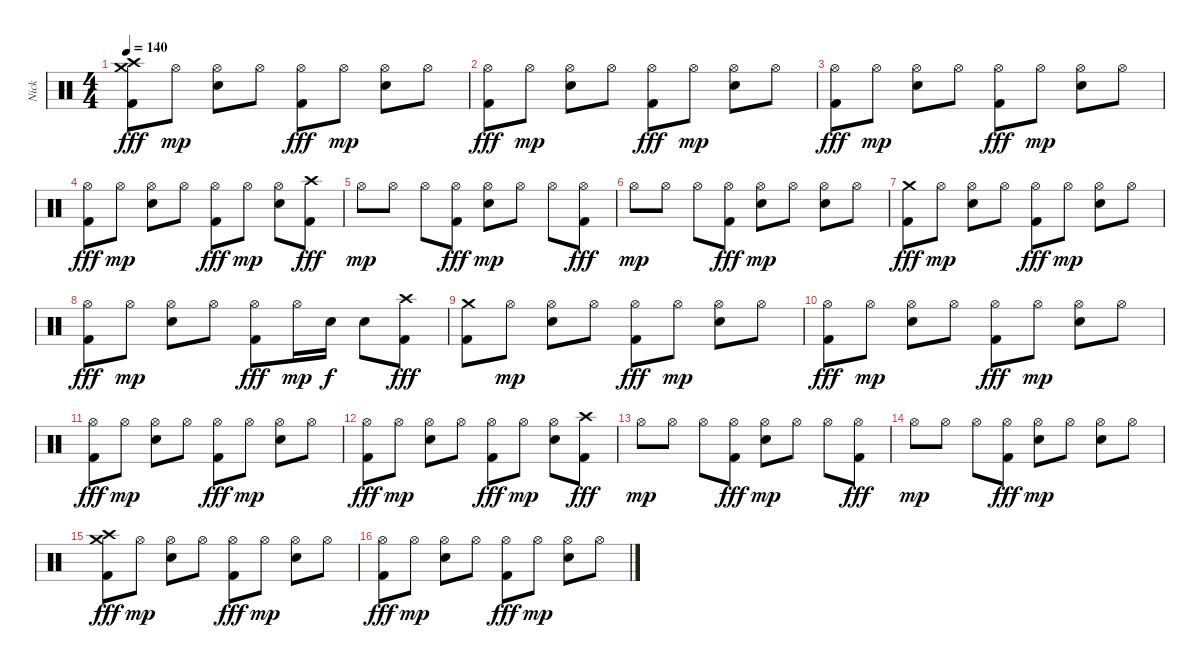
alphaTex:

\track ("Nick" "Nick") {instrument percussion}
\staff {score}
\articulation defaults
\ts (4 4)
\tempo 140
\clef neutral
\ks c
("Crash high (hit)" "Crash medium (hit)" "Kick (hit) 2").8{dy fff} "Hi-Hat (open)".8{dy mp} ("Hi-Hat (open)" "Electric Snare (hit)").8 "Hi-Hat (open)".8 ("Hi-Hat (open)" "Kick (hit) 2").8{dy fff} "Hi-Hat (open)".8{dy mp} ("Hi-Hat (open)" "Electric Snare (hit)").8 "Hi-Hat (open)".8 |
("Hi-Hat (open)" "Kick (hit) 2").8{dy fff} "Hi-Hat (open)".8{dy mp} ("Hi-Hat (open)" "Electric Snare (hit)").8 "Hi-Hat (open)".8 ("Hi-Hat (open)" "Kick (hit) 2").8{dy fff} "Hi-Hat (open)".8{dy mp} ("Hi-Hat (open)" "Electric Snare (hit)").8 "Hi-Hat (open)".8 |
("Hi-Hat (open)" "Kick (hit) 2").8{dy fff} "Hi-Hat (open)".8{dy mp} ("Hi-Hat (open)" "Electric Snare (hit)").8 "Hi-Hat (open)".8 ("Hi-Hat (open)" "Kick (hit) 2").8{dy fff} "Hi-Hat (open)".8{dy mp} ("Hi-Hat (open)" "Electric Snare (hit)").8 "Hi-Hat (open)".8 |
("Hi-Hat (open)" "Kick (hit) 2").8{dy fff} "Hi-Hat (open)".8{dy mp} ("Hi-Hat (open)" "Electric Snare (hit)").8 "Hi-Hat (open)".8 ("Hi-Hat (open)" "Kick (hit) 2").8{dy fff} "Hi-Hat (open)".8{dy mp} ("Hi-Hat (open)" "Electric Snare (hit)").8 ("Crash high (hit)" "Kick (hit) 2").8{dy fff} |
"Hi-Hat (open)".8{dy mp} "Hi-Hat (open)".8 "Hi-Hat (open)".8 ("Hi-Hat (open)" "Kick (hit) 2").8{dy fff} ("Hi-Hat (open)" "Electric Snare (hit)").8{dy mp} "Hi-Hat (open)".8 "Hi-Hat (open)".8 ("Hi-Hat (open)" "Kick (hit) 2").8{dy fff} |
"Hi-Hat (open)".8{dy mp} "Hi-Hat (open)".8 "Hi-Hat (open)".8 ("Hi-Hat (open)" "Kick (hit) 2").8{dy fff} ("Hi-Hat (open)" "Electric Snare (hit)").8{dy mp} "Hi-Hat (open)".8 ("Hi-Hat (open)" "Electric Snare (hit)").8 "Hi-Hat (open)".8 |
("Crash medium (hit)" "Kick (hit) 2").8{dy fff} "Hi-Hat (open)".8{dy mp} ("Hi-Hat (open)" "Electric Snare (hit)").8 "Hi-Hat (open)".8 ("Hi-Hat (open)" "Kick (hit) 2").8{dy fff} "Hi-Hat (open)".8{dy mp} ("Hi-Hat (open)" "Electric Snare (hit)").8 "Hi-Hat (open)".8 |
("Hi-Hat (open)" "Kick (hit) 2").8{dy fff} "Hi-Hat (open)".8{dy mp} ("Hi-Hat (open)" "Electric Snare (hit)").8 "Hi-Hat (open)".8 ("Hi-Hat (open)" "Kick (hit) 2").8{dy fff} "Hi-Hat (open)".16{dy mp} "Electric Snare (hit)".16{dy f} "Electric Snare (hit)".8 ("Crash high (hit)" "Kick (hit) 2").8{dy fff} |
("Crash medium (hit)" "Kick (hit) 2").8 "Hi-Hat (open)".8{dy mp} ("Hi-Hat (open)" "Electric Snare (hit)").8 "Hi-Hat (open)".8 ("Hi-Hat (open)" "Kick (hit) 2").8{dy fff} "Hi-Hat (open)".8{dy mp} ("Hi-Hat (open)" "Electric Snare (hit)").8 "Hi-Hat (open)".8 |
("Hi-Hat (open)" "Kick (hit) 2").8{dy fff} "Hi-Hat (open)".8{dy mp} ("Hi-Hat (open)" "Electric Snare (hit)").8 "Hi-Hat (open)".8 ("Hi-Hat (open)" "Kick (hit) 2").8{dy fff} "Hi-Hat (open)".8{dy mp} ("Hi-Hat (open)" "Electric Snare (hit)").8 "Hi-Hat (open)".8 |
("Hi-Hat (open)" "Kick (hit) 2").8{dy fff} "Hi-Hat (open)".8{dy mp} ("Hi-Hat (open)" "Electric Snare (hit)").8 "Hi-Hat (open)".8 ("Hi-Hat (open)" "Kick (hit) 2").8{dy fff} "Hi-Hat (open)".8{dy mp} ("Hi-Hat (open)" "Electric Snare (hit)").8 "Hi-Hat (open)".8 |
("Hi-Hat (open)" "Kick (hit) 2").8{dy fff} "Hi-Hat (open)".8{dy mp} ("Hi-Hat (open)" "Electric Snare (hit)").8 "Hi-Hat (open)".8 ("Hi-Hat (open)" "Kick (hit) 2").8{dy fff} "Hi-Hat (open)".8{dy mp} ("Hi-Hat (open)" "Electric Snare (hit)").8 ("Crash high (hit)" "Kick (hit) 2").8{dy fff} |
"Hi-Hat (open)".8{dy mp} "Hi-Hat (open)".8 "Hi-Hat (open)".8 ("Hi-Hat (open)" "Kick (hit) 2").8{dy fff} ("Hi-Hat (open)" "Electric Snare (hit)").8{dy mp} "Hi-Hat (open)".8 "Hi-Hat (open)".8 ("Hi-Hat (open)" "Kick (hit) 2").8{dy fff} |
"Hi-Hat (open)".8{dy mp} "Hi-Hat (open)".8 "Hi-Hat (open)".8 ("Hi-Hat (open)" "Kick (hit) 2").8{dy fff} ("Hi-Hat (open)" "Electric Snare (hit)").8{dy mp} "Hi-Hat (open)".8 ("Hi-Hat (open)" "Electric Snare (hit)").8 "Hi-Hat (open)".8 |
("Crash high (hit)" "Crash medium (hit)" "Kick (hit) 2").8{dy fff} "Hi-Hat (open)".8{dy mp} ("Hi-Hat (open)" "Electric Snare (hit)").8 "Hi-Hat (open)".8 ("Hi-Hat (open)" "Kick (hit) 2").8{dy fff} "Hi-Hat (open)".8{dy mp} ("Hi-Hat (open)" "Electric Snare (hit)").8 "Hi-Hat (open)".8 |
("Hi-Hat (open)" "Kick (hit) 2").8{dy fff} "Hi-Hat (open)".8{dy mp} ("Hi-Hat (open)" "Electric Snare (hit)").8 "Hi-Hat (open)".8 ("Hi-Hat (open)" "Kick (hit) 2").8{dy fff} "Hi-Hat (open)".8{dy mp} ("Hi-Hat (open)" "Electric Snare (hit)").8 "Hi-Hat (open)".8
